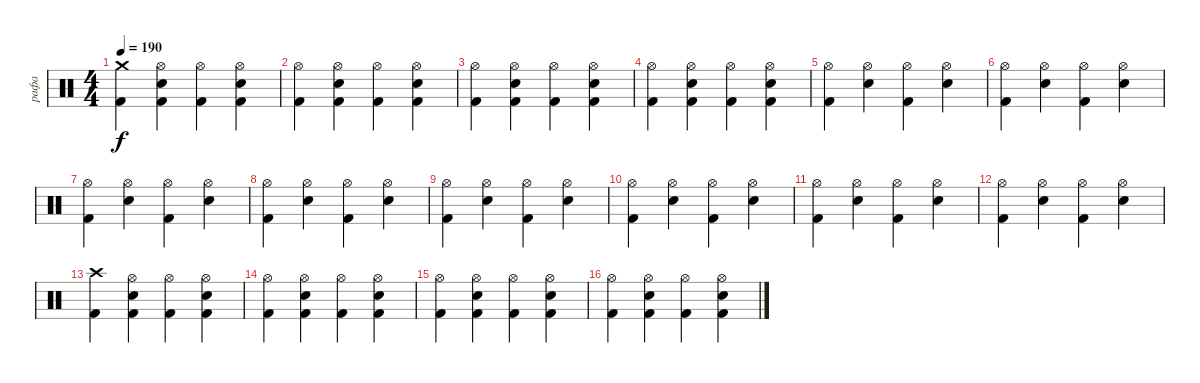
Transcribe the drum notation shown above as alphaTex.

\track ("рафа" "рафа") {instrument percussion}
\staff {score}
\articulation defaults
\ts (4 4)
\tempo 190
\clef neutral
\ks c
("Kick (hit) 2" "Crash medium (hit)").4{dy f} ("Kick (hit) 2" "Snare (hit) 2" "Hi-Hat (open)").4 ("Kick (hit) 2" "Hi-Hat (open)").4 ("Kick (hit) 2" "Snare (hit) 2" "Hi-Hat (open)").4 |
("Kick (hit) 2" "Hi-Hat (open)").4 ("Kick (hit) 2" "Snare (hit) 2" "Hi-Hat (open)").4 ("Kick (hit) 2" "Hi-Hat (open)").4 ("Kick (hit) 2" "Snare (hit) 2" "Hi-Hat (open)").4 |
("Kick (hit) 2" "Hi-Hat (open)").4 ("Kick (hit) 2" "Snare (hit) 2" "Hi-Hat (open)").4 ("Kick (hit) 2" "Hi-Hat (open)").4 ("Kick (hit) 2" "Snare (hit) 2" "Hi-Hat (open)").4 |
("Kick (hit) 2" "Hi-Hat (open)").4 ("Kick (hit) 2" "Snare (hit) 2" "Hi-Hat (open)").4 ("Kick (hit) 2" "Hi-Hat (open)").4 ("Kick (hit) 2" "Snare (hit) 2" "Hi-Hat (open)").4 |
("Kick (hit) 2" "Hi-Hat (open)").4 ("Snare (hit) 2" "Hi-Hat (open)").4 ("Kick (hit) 2" "Hi-Hat (open)").4 ("Snare (hit) 2" "Hi-Hat (open)").4 |
("Kick (hit) 2" "Hi-Hat (open)").4 ("Snare (hit) 2" "Hi-Hat (open)").4 ("Kick (hit) 2" "Hi-Hat (open)").4 ("Snare (hit) 2" "Hi-Hat (open)").4 |
("Kick (hit) 2" "Hi-Hat (open)").4 ("Snare (hit) 2" "Hi-Hat (open)").4 ("Kick (hit) 2" "Hi-Hat (open)").4 ("Snare (hit) 2" "Hi-Hat (open)").4 |
("Kick (hit) 2" "Hi-Hat (open)").4 ("Snare (hit) 2" "Hi-Hat (open)").4 ("Kick (hit) 2" "Hi-Hat (open)").4 ("Snare (hit) 2" "Hi-Hat (open)").4 |
("Kick (hit) 2" "Hi-Hat (open)").4 ("Snare (hit) 2" "Hi-Hat (open)").4 ("Kick (hit) 2" "Hi-Hat (open)").4 ("Snare (hit) 2" "Hi-Hat (open)").4 |
("Kick (hit) 2" "Hi-Hat (open)").4 ("Snare (hit) 2" "Hi-Hat (open)").4 ("Kick (hit) 2" "Hi-Hat (open)").4 ("Snare (hit) 2" "Hi-Hat (open)").4 |
("Kick (hit) 2" "Hi-Hat (open)").4 ("Snare (hit) 2" "Hi-Hat (open)").4 ("Kick (hit) 2" "Hi-Hat (open)").4 ("Snare (hit) 2" "Hi-Hat (open)").4 |
("Kick (hit) 2" "Hi-Hat (open)").4 ("Snare (hit) 2" "Hi-Hat (open)").4 ("Kick (hit) 2" "Hi-Hat (open)").4 ("Snare (hit) 2" "Hi-Hat (open)").4 |
("Kick (hit) 2" "Crash high (hit)").4 ("Kick (hit) 2" "Snare (hit) 2" "Hi-Hat (open)").4 ("Kick (hit) 2" "Hi-Hat (open)").4 ("Kick (hit) 2" "Snare (hit) 2" "Hi-Hat (open)").4 |
("Kick (hit) 2" "Hi-Hat (open)").4 ("Kick (hit) 2" "Snare (hit) 2" "Hi-Hat (open)").4 ("Kick (hit) 2" "Hi-Hat (open)").4 ("Kick (hit) 2" "Snare (hit) 2" "Hi-Hat (open)").4 |
("Kick (hit) 2" "Hi-Hat (open)").4 ("Kick (hit) 2" "Snare (hit) 2" "Hi-Hat (open)").4 ("Kick (hit) 2" "Hi-Hat (open)").4 ("Kick (hit) 2" "Snare (hit) 2" "Hi-Hat (open)").4 |
("Kick (hit) 2" "Hi-Hat (open)").4 ("Kick (hit) 2" "Snare (hit) 2" "Hi-Hat (open)").4 ("Kick (hit) 2" "Hi-Hat (open)").4 ("Kick (hit) 2" "Snare (hit) 2" "Hi-Hat (open)").4
